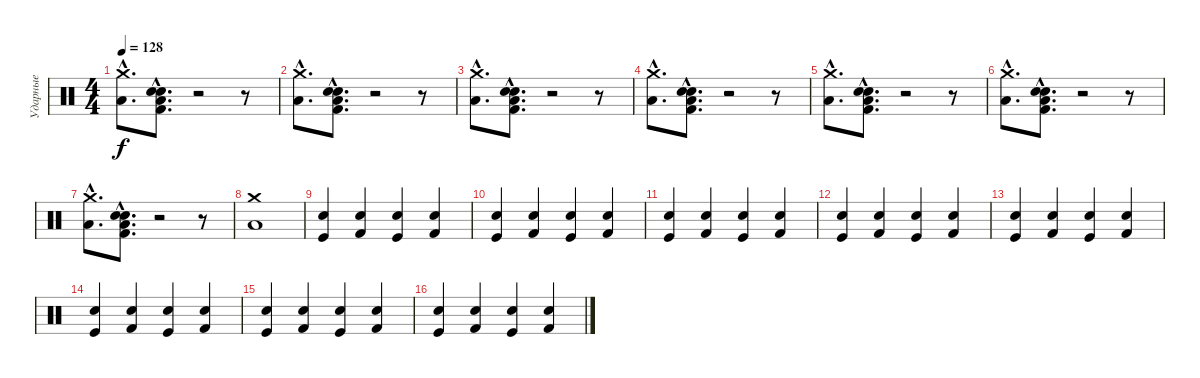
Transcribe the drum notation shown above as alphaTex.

\track ("Ударные" "Ударные") {instrument percussion}
\staff {score}
\articulation defaults
\ts (4 4)
\tempo 128
\clef neutral
\ks c
("Crash medium (hit)"{hac} "Low Floor Tom (hit)"{hac}).8{d dy f} ("Electric Snare (hit)"{hac} "Kick (hit) 2"{hac} "Low Floor Tom (hit)"{hac} "Snare (hit) 2"{hac}).8{d} r.2 r.8 |
("Crash medium (hit)"{hac} "Low Floor Tom (hit)"{hac}).8{d} ("Electric Snare (hit)"{hac} "Kick (hit) 2"{hac} "Low Floor Tom (hit)"{hac} "Snare (hit) 2"{hac}).8{d} r.2 r.8 |
("Crash medium (hit)"{hac} "Low Floor Tom (hit)"{hac}).8{d} ("Electric Snare (hit)"{hac} "Kick (hit) 2"{hac} "Low Floor Tom (hit)"{hac} "Snare (hit) 2"{hac}).8{d} r.2 r.8 |
("Crash medium (hit)"{hac} "Low Floor Tom (hit)"{hac}).8{d} ("Electric Snare (hit)"{hac} "Kick (hit) 2"{hac} "Low Floor Tom (hit)"{hac} "Snare (hit) 2"{hac}).8{d} r.2 r.8 |
("Crash medium (hit)"{hac} "Low Floor Tom (hit)"{hac}).8{d} ("Electric Snare (hit)"{hac} "Kick (hit) 2"{hac} "Low Floor Tom (hit)"{hac} "Snare (hit) 2"{hac}).8{d} r.2 r.8 |
("Crash medium (hit)"{hac} "Low Floor Tom (hit)"{hac}).8{d} ("Electric Snare (hit)"{hac} "Kick (hit) 2"{hac} "Low Floor Tom (hit)"{hac} "Snare (hit) 2"{hac}).8{d} r.2 r.8 |
("Crash medium (hit)"{hac} "Low Floor Tom (hit)"{hac}).8{d} ("Electric Snare (hit)"{hac} "Kick (hit) 2"{hac} "Low Floor Tom (hit)"{hac} "Snare (hit) 2"{hac}).8{d} r.2 r.8 |
("Crash medium (hit)" "Low Floor Tom (hit)").1 |
("Kick (hit)" "Electric Snare (hit)").4 ("Kick (hit) 2" "Snare (hit) 2").4 ("Kick (hit)" "Electric Snare (hit)").4 ("Kick (hit) 2" "Snare (hit) 2").4 |
("Kick (hit)" "Electric Snare (hit)").4 ("Kick (hit) 2" "Snare (hit) 2").4 ("Kick (hit)" "Electric Snare (hit)").4 ("Kick (hit) 2" "Snare (hit) 2").4 |
("Kick (hit)" "Electric Snare (hit)").4 ("Kick (hit) 2" "Snare (hit) 2").4 ("Kick (hit)" "Electric Snare (hit)").4 ("Kick (hit) 2" "Snare (hit) 2").4 |
("Kick (hit)" "Electric Snare (hit)").4 ("Kick (hit) 2" "Snare (hit) 2").4 ("Kick (hit)" "Electric Snare (hit)").4 ("Kick (hit) 2" "Snare (hit) 2").4 |
("Kick (hit)" "Electric Snare (hit)").4 ("Kick (hit) 2" "Snare (hit) 2").4 ("Kick (hit)" "Electric Snare (hit)").4 ("Kick (hit) 2" "Snare (hit) 2").4 |
("Kick (hit)" "Electric Snare (hit)").4 ("Kick (hit) 2" "Snare (hit) 2").4 ("Kick (hit)" "Electric Snare (hit)").4 ("Kick (hit) 2" "Snare (hit) 2").4 |
("Kick (hit)" "Electric Snare (hit)").4 ("Kick (hit) 2" "Snare (hit) 2").4 ("Kick (hit)" "Electric Snare (hit)").4 ("Kick (hit) 2" "Snare (hit) 2").4 |
("Kick (hit)" "Electric Snare (hit)").4 ("Kick (hit) 2" "Snare (hit) 2").4 ("Kick (hit)" "Electric Snare (hit)").4 ("Kick (hit) 2" "Snare (hit) 2").4
